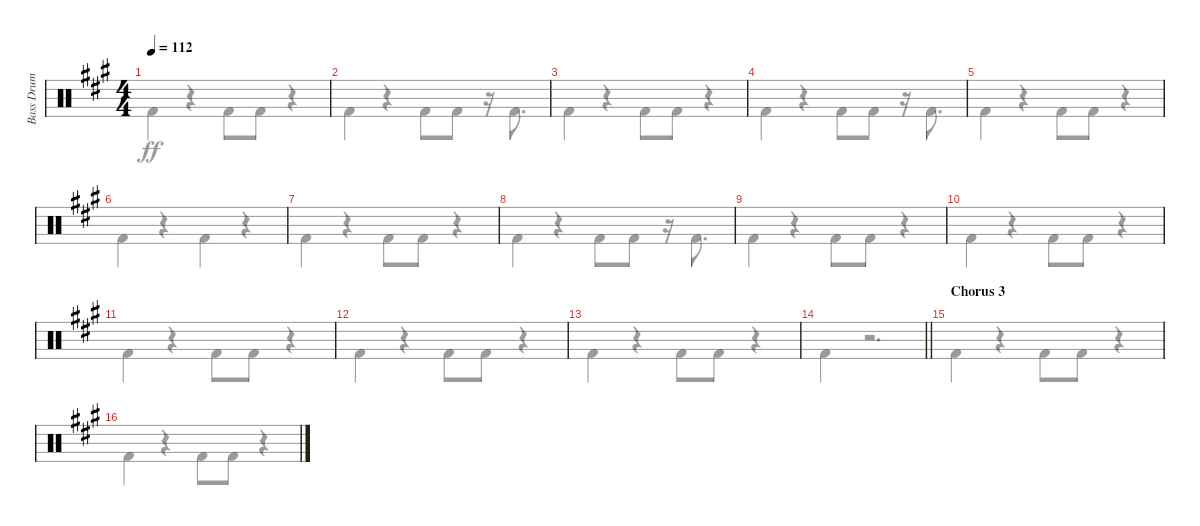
\track ("Bass Drum" "Bass Drum") {instrument percussion}
\staff {score}
\articulation defaults
\voice
\ts (4 4)
\tempo 112
\clef neutral
\ks f#minor
|
|
|
|
|
|
|
|
|
|
|
|
|
\barLineRight lightlight
|
\section ("" "Chorus 3")
|
\voice
\clef neutral
\ks f#minor "Kick (hit) 2".4{dy ff}
r.4 "Kick (hit) 2".8 "Kick (hit) 2".8 r.4 |
"Kick (hit) 2".4 r.4 "Kick (hit) 2".8 "Kick (hit) 2".8 r.16 "Kick (hit) 2".8{d} |
"Kick (hit) 2".4 r.4 "Kick (hit) 2".8 "Kick (hit) 2".8 r.4 |
"Kick (hit) 2".4 r.4 "Kick (hit) 2".8 "Kick (hit) 2".8 r.16 "Kick (hit) 2".8{d} |
"Kick (hit) 2".4 r.4 "Kick (hit) 2".8 "Kick (hit) 2".8 r.4 |
"Kick (hit) 2".4 r.4 "Kick (hit) 2".4 r.4 |
"Kick (hit) 2".4 r.4 "Kick (hit) 2".8 "Kick (hit) 2".8 r.4 |
"Kick (hit) 2".4 r.4 "Kick (hit) 2".8 "Kick (hit) 2".8 r.16 "Kick (hit) 2".8{d} |
"Kick (hit) 2".4 r.4 "Kick (hit) 2".8 "Kick (hit) 2".8 r.4 |
"Kick (hit) 2".4 r.4 "Kick (hit) 2".8 "Kick (hit) 2".8 r.4 |
"Kick (hit) 2".4 r.4 "Kick (hit) 2".8 "Kick (hit) 2".8 r.4 |
"Kick (hit) 2".4 r.4 "Kick (hit) 2".8 "Kick (hit) 2".8 r.4 |
"Kick (hit) 2".4 r.4 "Kick (hit) 2".8 "Kick (hit) 2".8 r.4 |
\barLineRight lightlight "Kick (hit) 2".4
r.2{d} |
"Kick (hit) 2".4 r.4 "Kick (hit) 2".8 "Kick (hit) 2".8 r.4 |
"Kick (hit) 2".4 r.4 "Kick (hit) 2".8 "Kick (hit) 2".8 r.4
